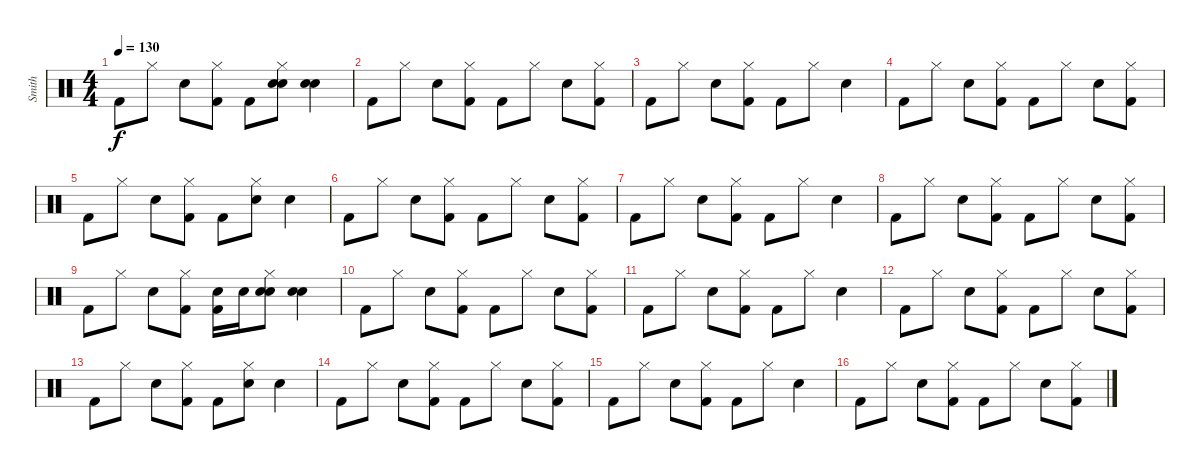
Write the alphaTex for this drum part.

\track ("Smith" "Smith") {instrument percussion}
\staff {score}
\articulation defaults
\ts (4 4)
\tempo 130
\clef neutral
\ks c "Kick (hit) 2".8{dy f} "Hi-Hat (closed)".8 "Snare (hit) 2".8
("Hi-Hat (closed)" "Kick (hit) 2").8 "Kick (hit) 2".8 ("Hand Clap (hit)" "Hi-Hat (closed)" "Snare (hit) 2").8 ("Hand Clap (hit)" "Snare (hit) 2").4 |
"Kick (hit) 2".8 "Hi-Hat (closed)".8 "Snare (hit) 2".8 ("Hi-Hat (closed)" "Kick (hit) 2").8 "Kick (hit) 2".8 "Hi-Hat (closed)".8 "Snare (hit) 2".8 ("Hi-Hat (closed)" "Kick (hit) 2").8 |
"Kick (hit) 2".8 "Hi-Hat (closed)".8 "Snare (hit) 2".8 ("Hi-Hat (closed)" "Kick (hit) 2").8 "Kick (hit) 2".8 "Hi-Hat (closed)".8 "Snare (hit) 2".4 |
"Kick (hit) 2".8 "Hi-Hat (closed)".8 "Snare (hit) 2".8 ("Hi-Hat (closed)" "Kick (hit) 2").8 "Kick (hit) 2".8 "Hi-Hat (closed)".8 "Snare (hit) 2".8 ("Hi-Hat (closed)" "Kick (hit) 2").8 |
"Kick (hit) 2".8 "Hi-Hat (closed)".8 "Snare (hit) 2".8 ("Hi-Hat (closed)" "Kick (hit) 2").8 "Kick (hit) 2".8 ("Hi-Hat (closed)" "Snare (hit) 2").8 "Snare (hit) 2".4 |
"Kick (hit) 2".8 "Hi-Hat (closed)".8 "Snare (hit) 2".8 ("Hi-Hat (closed)" "Kick (hit) 2").8 "Kick (hit) 2".8 "Hi-Hat (closed)".8 "Snare (hit) 2".8 ("Hi-Hat (closed)" "Kick (hit) 2").8 |
"Kick (hit) 2".8 "Hi-Hat (closed)".8 "Snare (hit) 2".8 ("Hi-Hat (closed)" "Kick (hit) 2").8 "Kick (hit) 2".8 "Hi-Hat (closed)".8 "Snare (hit) 2".4 |
"Kick (hit) 2".8 "Hi-Hat (closed)".8 "Snare (hit) 2".8 ("Hi-Hat (closed)" "Kick (hit) 2").8 "Kick (hit) 2".8 "Hi-Hat (closed)".8 "Snare (hit) 2".8 ("Hi-Hat (closed)" "Kick (hit) 2").8 |
"Kick (hit) 2".8 "Hi-Hat (closed)".8 "Snare (hit) 2".8 ("Hi-Hat (closed)" "Kick (hit) 2").8 ("Snare (hit) 2" "Kick (hit) 2").16 "Snare (hit) 2".16 ("Hand Clap (hit)" "Hi-Hat (closed)" "Snare (hit) 2").8 ("Hand Clap (hit)" "Snare (hit) 2").4 |
"Kick (hit) 2".8 "Hi-Hat (closed)".8 "Snare (hit) 2".8 ("Hi-Hat (closed)" "Kick (hit) 2").8 "Kick (hit) 2".8 "Hi-Hat (closed)".8 "Snare (hit) 2".8 ("Hi-Hat (closed)" "Kick (hit) 2").8 |
"Kick (hit) 2".8 "Hi-Hat (closed)".8 "Snare (hit) 2".8 ("Hi-Hat (closed)" "Kick (hit) 2").8 "Kick (hit) 2".8 "Hi-Hat (closed)".8 "Snare (hit) 2".4 |
"Kick (hit) 2".8 "Hi-Hat (closed)".8 "Snare (hit) 2".8 ("Hi-Hat (closed)" "Kick (hit) 2").8 "Kick (hit) 2".8 "Hi-Hat (closed)".8 "Snare (hit) 2".8 ("Hi-Hat (closed)" "Kick (hit) 2").8 |
"Kick (hit) 2".8 "Hi-Hat (closed)".8 "Snare (hit) 2".8 ("Hi-Hat (closed)" "Kick (hit) 2").8 "Kick (hit) 2".8 ("Hi-Hat (closed)" "Snare (hit) 2").8 "Snare (hit) 2".4 |
"Kick (hit) 2".8 "Hi-Hat (closed)".8 "Snare (hit) 2".8 ("Hi-Hat (closed)" "Kick (hit) 2").8 "Kick (hit) 2".8 "Hi-Hat (closed)".8 "Snare (hit) 2".8 ("Hi-Hat (closed)" "Kick (hit) 2").8 |
"Kick (hit) 2".8 "Hi-Hat (closed)".8 "Snare (hit) 2".8 ("Hi-Hat (closed)" "Kick (hit) 2").8 "Kick (hit) 2".8 "Hi-Hat (closed)".8 "Snare (hit) 2".4 |
"Kick (hit) 2".8 "Hi-Hat (closed)".8 "Snare (hit) 2".8 ("Hi-Hat (closed)" "Kick (hit) 2").8 "Kick (hit) 2".8 "Hi-Hat (closed)".8 "Snare (hit) 2".8 ("Hi-Hat (closed)" "Kick (hit) 2").8
